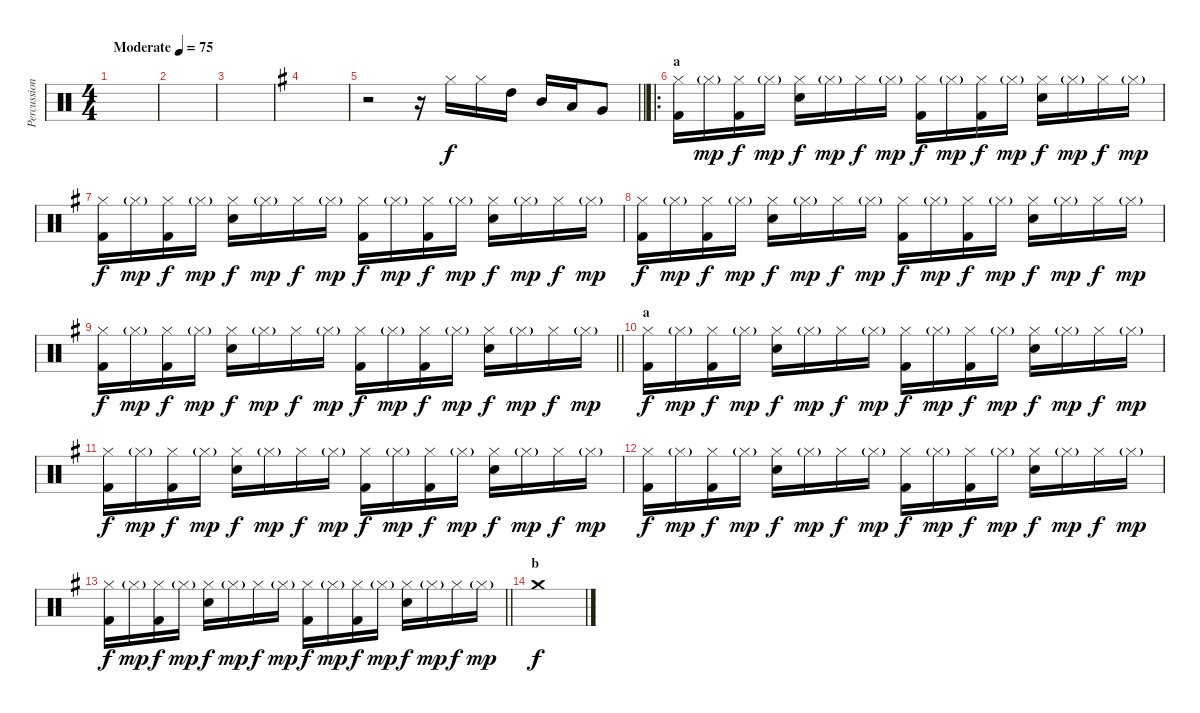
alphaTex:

\track ("Percussion" "Percussion") {instrument percussion}
\staff {score}
\articulation defaults
\ts (4 4)
\tempo (75 "Moderate")
\clef neutral
\ks c
|
|
|
\ks g
|
\barLineRight lightlight
r.2 r.16 "Hi-Hat (closed)".16 "Hi-Hat (closed)".16 "High Tom (hit)".16 "Mid Tom (hit)".16 "Low Tom (hit)".16 "Very Low Tom (hit)".8 |
\ro
\section ("" "a")
("Hi-Hat (closed)" "Kick (hit) 2").16 "Hi-Hat (closed)"{g}.16{dy mp} ("Hi-Hat (closed)" "Kick (hit) 2").16{dy f} "Hi-Hat (closed)"{g}.16{dy mp} ("Hi-Hat (closed)" "Electric Snare (hit)").16{dy f} "Hi-Hat (closed)"{g}.16{dy mp} "Hi-Hat (closed)".16{dy f} "Hi-Hat (closed)"{g}.16{dy mp} ("Hi-Hat (closed)" "Kick (hit) 2").16{dy f} "Hi-Hat (closed)"{g}.16{dy mp} ("Hi-Hat (closed)" "Kick (hit) 2").16{dy f} "Hi-Hat (closed)"{g}.16{dy mp} ("Hi-Hat (closed)" "Electric Snare (hit)").16{dy f} "Hi-Hat (closed)"{g}.16{dy mp} "Hi-Hat (closed)".16{dy f} "Hi-Hat (closed)"{g}.16{dy mp} |
("Hi-Hat (closed)" "Kick (hit) 2").16{dy f} "Hi-Hat (closed)"{g}.16{dy mp} ("Hi-Hat (closed)" "Kick (hit) 2").16{dy f} "Hi-Hat (closed)"{g}.16{dy mp} ("Hi-Hat (closed)" "Electric Snare (hit)").16{dy f} "Hi-Hat (closed)"{g}.16{dy mp} "Hi-Hat (closed)".16{dy f} "Hi-Hat (closed)"{g}.16{dy mp} ("Hi-Hat (closed)" "Kick (hit) 2").16{dy f} "Hi-Hat (closed)"{g}.16{dy mp} ("Hi-Hat (closed)" "Kick (hit) 2").16{dy f} "Hi-Hat (closed)"{g}.16{dy mp} ("Hi-Hat (closed)" "Electric Snare (hit)").16{dy f} "Hi-Hat (closed)"{g}.16{dy mp} "Hi-Hat (closed)".16{dy f} "Hi-Hat (closed)"{g}.16{dy mp} |
("Hi-Hat (closed)" "Kick (hit) 2").16{dy f} "Hi-Hat (closed)"{g}.16{dy mp} ("Hi-Hat (closed)" "Kick (hit) 2").16{dy f} "Hi-Hat (closed)"{g}.16{dy mp} ("Hi-Hat (closed)" "Electric Snare (hit)").16{dy f} "Hi-Hat (closed)"{g}.16{dy mp} "Hi-Hat (closed)".16{dy f} "Hi-Hat (closed)"{g}.16{dy mp} ("Hi-Hat (closed)" "Kick (hit) 2").16{dy f} "Hi-Hat (closed)"{g}.16{dy mp} ("Hi-Hat (closed)" "Kick (hit) 2").16{dy f} "Hi-Hat (closed)"{g}.16{dy mp} ("Hi-Hat (closed)" "Electric Snare (hit)").16{dy f} "Hi-Hat (closed)"{g}.16{dy mp} "Hi-Hat (closed)".16{dy f} "Hi-Hat (closed)"{g}.16{dy mp} |
\barLineRight lightlight
("Hi-Hat (closed)" "Kick (hit) 2").16{dy f} "Hi-Hat (closed)"{g}.16{dy mp} ("Hi-Hat (closed)" "Kick (hit) 2").16{dy f} "Hi-Hat (closed)"{g}.16{dy mp} ("Hi-Hat (closed)" "Electric Snare (hit)").16{dy f} "Hi-Hat (closed)"{g}.16{dy mp} "Hi-Hat (closed)".16{dy f} "Hi-Hat (closed)"{g}.16{dy mp} ("Hi-Hat (closed)" "Kick (hit) 2").16{dy f} "Hi-Hat (closed)"{g}.16{dy mp} ("Hi-Hat (closed)" "Kick (hit) 2").16{dy f} "Hi-Hat (closed)"{g}.16{dy mp} ("Hi-Hat (closed)" "Electric Snare (hit)").16{dy f} "Hi-Hat (closed)"{g}.16{dy mp} "Hi-Hat (closed)".16{dy f} "Hi-Hat (closed)"{g}.16{dy mp} |
\section ("" "a")
("Hi-Hat (closed)" "Kick (hit) 2").16{dy f} "Hi-Hat (closed)"{g}.16{dy mp} ("Hi-Hat (closed)" "Kick (hit) 2").16{dy f} "Hi-Hat (closed)"{g}.16{dy mp} ("Hi-Hat (closed)" "Electric Snare (hit)").16{dy f} "Hi-Hat (closed)"{g}.16{dy mp} "Hi-Hat (closed)".16{dy f} "Hi-Hat (closed)"{g}.16{dy mp} ("Hi-Hat (closed)" "Kick (hit) 2").16{dy f} "Hi-Hat (closed)"{g}.16{dy mp} ("Hi-Hat (closed)" "Kick (hit) 2").16{dy f} "Hi-Hat (closed)"{g}.16{dy mp} ("Hi-Hat (closed)" "Electric Snare (hit)").16{dy f} "Hi-Hat (closed)"{g}.16{dy mp} "Hi-Hat (closed)".16{dy f} "Hi-Hat (closed)"{g}.16{dy mp} |
("Hi-Hat (closed)" "Kick (hit) 2").16{dy f} "Hi-Hat (closed)"{g}.16{dy mp} ("Hi-Hat (closed)" "Kick (hit) 2").16{dy f} "Hi-Hat (closed)"{g}.16{dy mp} ("Hi-Hat (closed)" "Electric Snare (hit)").16{dy f} "Hi-Hat (closed)"{g}.16{dy mp} "Hi-Hat (closed)".16{dy f} "Hi-Hat (closed)"{g}.16{dy mp} ("Hi-Hat (closed)" "Kick (hit) 2").16{dy f} "Hi-Hat (closed)"{g}.16{dy mp} ("Hi-Hat (closed)" "Kick (hit) 2").16{dy f} "Hi-Hat (closed)"{g}.16{dy mp} ("Hi-Hat (closed)" "Electric Snare (hit)").16{dy f} "Hi-Hat (closed)"{g}.16{dy mp} "Hi-Hat (closed)".16{dy f} "Hi-Hat (closed)"{g}.16{dy mp} |
("Hi-Hat (closed)" "Kick (hit) 2").16{dy f} "Hi-Hat (closed)"{g}.16{dy mp} ("Hi-Hat (closed)" "Kick (hit) 2").16{dy f} "Hi-Hat (closed)"{g}.16{dy mp} ("Hi-Hat (closed)" "Electric Snare (hit)").16{dy f} "Hi-Hat (closed)"{g}.16{dy mp} "Hi-Hat (closed)".16{dy f} "Hi-Hat (closed)"{g}.16{dy mp} ("Hi-Hat (closed)" "Kick (hit) 2").16{dy f} "Hi-Hat (closed)"{g}.16{dy mp} ("Hi-Hat (closed)" "Kick (hit) 2").16{dy f} "Hi-Hat (closed)"{g}.16{dy mp} ("Hi-Hat (closed)" "Electric Snare (hit)").16{dy f} "Hi-Hat (closed)"{g}.16{dy mp} "Hi-Hat (closed)".16{dy f} "Hi-Hat (closed)"{g}.16{dy mp} |
\barLineRight lightlight
("Hi-Hat (closed)" "Kick (hit) 2").16{dy f} "Hi-Hat (closed)"{g}.16{dy mp} ("Hi-Hat (closed)" "Kick (hit) 2").16{dy f} "Hi-Hat (closed)"{g}.16{dy mp} ("Hi-Hat (closed)" "Electric Snare (hit)").16{dy f} "Hi-Hat (closed)"{g}.16{dy mp} "Hi-Hat (closed)".16{dy f} "Hi-Hat (closed)"{g}.16{dy mp} ("Hi-Hat (closed)" "Kick (hit) 2").16{dy f} "Hi-Hat (closed)"{g}.16{dy mp} ("Hi-Hat (closed)" "Kick (hit) 2").16{dy f} "Hi-Hat (closed)"{g}.16{dy mp} ("Hi-Hat (closed)" "Electric Snare (hit)").16{dy f} "Hi-Hat (closed)"{g}.16{dy mp} "Hi-Hat (closed)".16{dy f} "Hi-Hat (closed)"{g}.16{dy mp} |
\section ("" "b")
"Crash medium (hit)".1{dy f}
